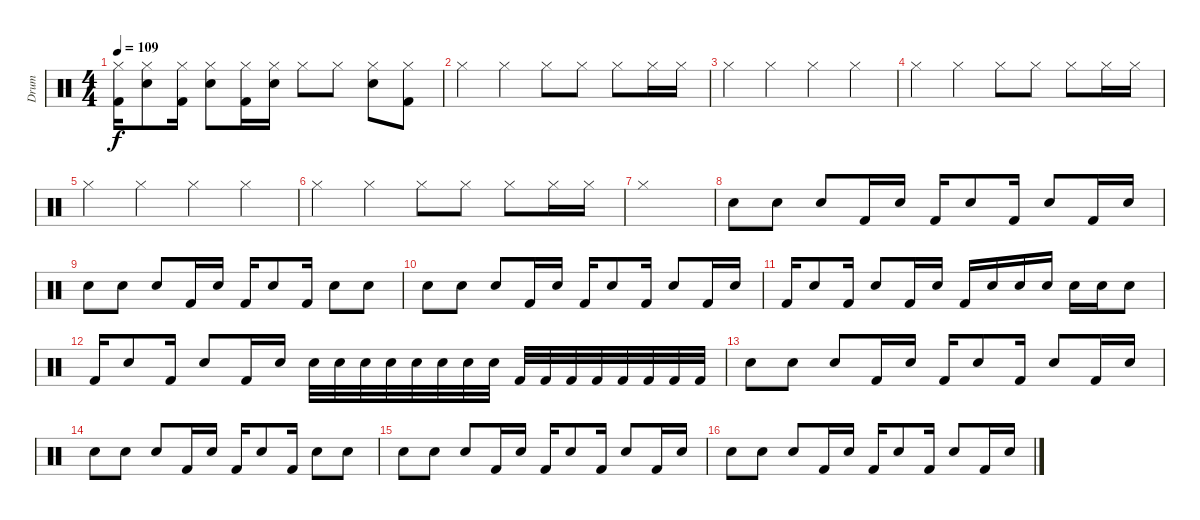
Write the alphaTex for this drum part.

\track ("Drum" "Drum") {instrument percussion}
\staff {score}
\articulation defaults
\ts (4 4)
\tempo 109
\clef neutral
\ks c
("Kick (hit) 2" "Hi-Hat (closed)").16{dy f} ("Electric Snare (hit)" "Hi-Hat (closed)").8 ("Kick (hit) 2" "Hi-Hat (closed)").16 ("Electric Snare (hit)" "Hi-Hat (closed)").8 ("Kick (hit) 2" "Hi-Hat (closed)").16 ("Electric Snare (hit)" "Hi-Hat (closed)").16 "Hi-Hat (closed)".8 "Hi-Hat (closed)".8 ("Electric Snare (hit)" "Hi-Hat (closed)").8 ("Kick (hit) 2" "Hi-Hat (closed)").8 |
"Hi-Hat (closed)".4 "Hi-Hat (closed)".4 "Hi-Hat (closed)".8 "Hi-Hat (closed)".8 "Hi-Hat (closed)".8 "Hi-Hat (closed)".16 "Hi-Hat (closed)".16 |
"Hi-Hat (closed)".4 "Hi-Hat (closed)".4 "Hi-Hat (closed)".4 "Hi-Hat (closed)".4 |
"Hi-Hat (closed)".4 "Hi-Hat (closed)".4 "Hi-Hat (closed)".8 "Hi-Hat (closed)".8 "Hi-Hat (closed)".8 "Hi-Hat (closed)".16 "Hi-Hat (closed)".16 |
"Hi-Hat (closed)".4 "Hi-Hat (closed)".4 "Hi-Hat (closed)".4 "Hi-Hat (closed)".4 |
"Hi-Hat (closed)".4 "Hi-Hat (closed)".4 "Hi-Hat (closed)".8 "Hi-Hat (closed)".8 "Hi-Hat (closed)".8 "Hi-Hat (closed)".16 "Hi-Hat (closed)".16 |
"Hi-Hat (closed)".1 |
"Electric Snare (hit)".8 "Electric Snare (hit)".8 "Electric Snare (hit)".8 "Kick (hit) 2".16 "Electric Snare (hit)".16 "Kick (hit) 2".16 "Electric Snare (hit)".8 "Kick (hit) 2".16 "Electric Snare (hit)".8 "Kick (hit) 2".16 "Electric Snare (hit)".16 |
"Electric Snare (hit)".8 "Electric Snare (hit)".8 "Electric Snare (hit)".8 "Kick (hit) 2".16 "Electric Snare (hit)".16 "Kick (hit) 2".16 "Electric Snare (hit)".8 "Kick (hit) 2".16 "Electric Snare (hit)".8 "Electric Snare (hit)".8 |
"Electric Snare (hit)".8 "Electric Snare (hit)".8 "Electric Snare (hit)".8 "Kick (hit) 2".16 "Electric Snare (hit)".16 "Kick (hit) 2".16 "Electric Snare (hit)".8 "Kick (hit) 2".16 "Electric Snare (hit)".8 "Kick (hit) 2".16 "Electric Snare (hit)".16 |
"Kick (hit) 2".16 "Electric Snare (hit)".8 "Kick (hit) 2".16 "Electric Snare (hit)".8 "Kick (hit) 2".16 "Electric Snare (hit)".16 "Kick (hit) 2".16 "Electric Snare (hit)".16 "Electric Snare (hit)".16 "Electric Snare (hit)".16 "Electric Snare (hit)".16 "Electric Snare (hit)".16 "Electric Snare (hit)".8 |
"Kick (hit) 2".16 "Electric Snare (hit)".8 "Kick (hit) 2".16 "Electric Snare (hit)".8 "Kick (hit) 2".16 "Electric Snare (hit)".16 "Electric Snare (hit)".32 "Electric Snare (hit)".32 "Electric Snare (hit)".32 "Electric Snare (hit)".32 "Electric Snare (hit)".32 "Electric Snare (hit)".32 "Electric Snare (hit)".32 "Electric Snare (hit)".32 "Kick (hit) 2".32 "Kick (hit) 2".32 "Kick (hit) 2".32 "Kick (hit) 2".32 "Kick (hit) 2".32 "Kick (hit) 2".32 "Kick (hit) 2".32 "Kick (hit) 2".32 |
"Electric Snare (hit)".8 "Electric Snare (hit)".8 "Electric Snare (hit)".8 "Kick (hit) 2".16 "Electric Snare (hit)".16 "Kick (hit) 2".16 "Electric Snare (hit)".8 "Kick (hit) 2".16 "Electric Snare (hit)".8 "Kick (hit) 2".16 "Electric Snare (hit)".16 |
"Electric Snare (hit)".8 "Electric Snare (hit)".8 "Electric Snare (hit)".8 "Kick (hit) 2".16 "Electric Snare (hit)".16 "Kick (hit) 2".16 "Electric Snare (hit)".8 "Kick (hit) 2".16 "Electric Snare (hit)".8 "Electric Snare (hit)".8 |
"Electric Snare (hit)".8 "Electric Snare (hit)".8 "Electric Snare (hit)".8 "Kick (hit) 2".16 "Electric Snare (hit)".16 "Kick (hit) 2".16 "Electric Snare (hit)".8 "Kick (hit) 2".16 "Electric Snare (hit)".8 "Kick (hit) 2".16 "Electric Snare (hit)".16 |
"Electric Snare (hit)".8 "Electric Snare (hit)".8 "Electric Snare (hit)".8 "Kick (hit) 2".16 "Electric Snare (hit)".16 "Kick (hit) 2".16 "Electric Snare (hit)".8 "Kick (hit) 2".16 "Electric Snare (hit)".8 "Kick (hit) 2".16 "Electric Snare (hit)".16
